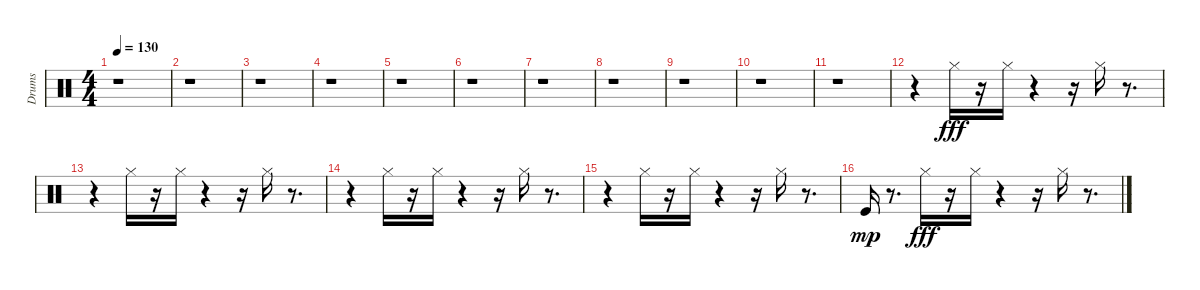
\track ("Drums" "Drums") {instrument percussion}
\staff {score}
\articulation defaults
\ts (4 4)
\tempo 130
\clef neutral
\ks c
r.1{dy p} |
r.1 |
r.1 |
r.1 |
r.1 |
r.1 |
r.1 |
r.1 |
r.1 |
r.1 |
r.1 |
r.4 "Hi-Hat (closed)".16{dy fff} r.16 "Hi-Hat (closed)".16 r.4 r.16 "Hi-Hat (closed)".16 r.8{d} |
r.4 "Hi-Hat (closed)".16 r.16 "Hi-Hat (closed)".16 r.4 r.16 "Hi-Hat (closed)".16 r.8{d} |
r.4 "Hi-Hat (closed)".16 r.16 "Hi-Hat (closed)".16 r.4 r.16 "Hi-Hat (closed)".16 r.8{d} |
r.4 "Hi-Hat (closed)".16 r.16 "Hi-Hat (closed)".16 r.4 r.16 "Hi-Hat (closed)".16 r.8{d} |
"Kick (hit)".16{dy mp} r.8{d} "Hi-Hat (closed)".16{dy fff} r.16 "Hi-Hat (closed)".16 r.4 r.16 "Hi-Hat (closed)".16 r.8{d}
